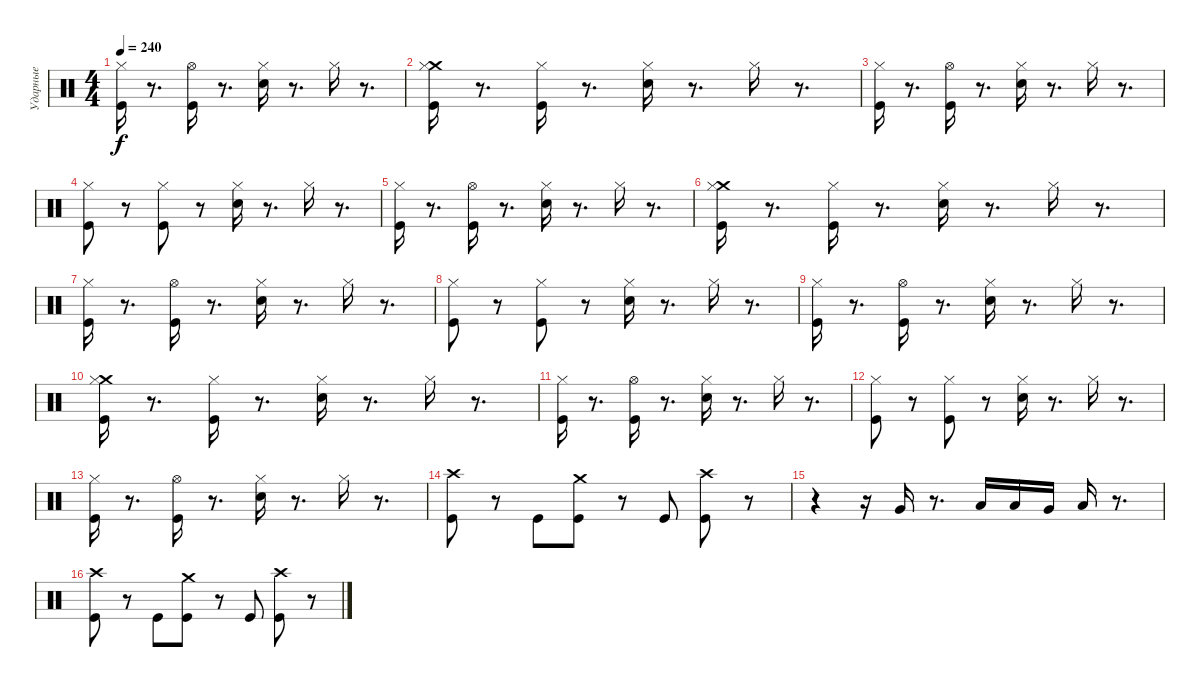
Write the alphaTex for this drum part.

\track ("Ударные" "Ударные") {instrument percussion}
\staff {score}
\articulation defaults
\ts (4 4)
\tempo 240
\clef neutral
\ks c
("Kick (hit)" "Hi-Hat (closed)").16{dy f} r.8{d} ("Kick (hit)" "Hi-Hat (open)").16 r.8{d} ("Snare (hit) 2" "Hi-Hat (closed)").16 r.8{d} "Hi-Hat (closed)".16 r.8{d} |
("Kick (hit)" "Crash medium (hit)" "Hi-Hat (closed)").16 r.8{d} ("Kick (hit)" "Hi-Hat (closed)").16 r.8{d} ("Snare (hit) 2" "Hi-Hat (closed)").16 r.8{d} "Hi-Hat (closed)".16 r.8{d} |
("Kick (hit)" "Hi-Hat (closed)").16 r.8{d} ("Kick (hit)" "Hi-Hat (open)").16 r.8{d} ("Snare (hit) 2" "Hi-Hat (closed)").16 r.8{d} "Hi-Hat (closed)".16 r.8{d} |
("Hi-Hat (closed)" "Kick (hit)").8 r.8 ("Kick (hit)" "Hi-Hat (closed)").8 r.8 ("Snare (hit) 2" "Hi-Hat (closed)").16 r.8{d} "Hi-Hat (closed)".16 r.8{d} |
("Kick (hit)" "Hi-Hat (closed)").16 r.8{d} ("Kick (hit)" "Hi-Hat (open)").16 r.8{d} ("Snare (hit) 2" "Hi-Hat (closed)").16 r.8{d} "Hi-Hat (closed)".16 r.8{d} |
("Kick (hit)" "Crash medium (hit)" "Hi-Hat (closed)").16 r.8{d} ("Kick (hit)" "Hi-Hat (closed)").16 r.8{d} ("Snare (hit) 2" "Hi-Hat (closed)").16 r.8{d} "Hi-Hat (closed)".16 r.8{d} |
("Kick (hit)" "Hi-Hat (closed)").16 r.8{d} ("Kick (hit)" "Hi-Hat (open)").16 r.8{d} ("Snare (hit) 2" "Hi-Hat (closed)").16 r.8{d} "Hi-Hat (closed)".16 r.8{d} |
("Hi-Hat (closed)" "Kick (hit)").8 r.8 ("Kick (hit)" "Hi-Hat (closed)").8 r.8 ("Snare (hit) 2" "Hi-Hat (closed)").16 r.8{d} "Hi-Hat (closed)".16 r.8{d} |
("Kick (hit)" "Hi-Hat (closed)").16 r.8{d} ("Kick (hit)" "Hi-Hat (open)").16 r.8{d} ("Snare (hit) 2" "Hi-Hat (closed)").16 r.8{d} "Hi-Hat (closed)".16 r.8{d} |
("Kick (hit)" "Crash medium (hit)" "Hi-Hat (closed)").16 r.8{d} ("Kick (hit)" "Hi-Hat (closed)").16 r.8{d} ("Snare (hit) 2" "Hi-Hat (closed)").16 r.8{d} "Hi-Hat (closed)".16 r.8{d} |
("Kick (hit)" "Hi-Hat (closed)").16 r.8{d} ("Kick (hit)" "Hi-Hat (open)").16 r.8{d} ("Snare (hit) 2" "Hi-Hat (closed)").16 r.8{d} "Hi-Hat (closed)".16 r.8{d} |
("Hi-Hat (closed)" "Kick (hit)").8 r.8 ("Kick (hit)" "Hi-Hat (closed)").8 r.8 ("Snare (hit) 2" "Hi-Hat (closed)").16 r.8{d} "Hi-Hat (closed)".16 r.8{d} |
("Kick (hit)" "Hi-Hat (closed)").16 r.8{d} ("Kick (hit)" "Hi-Hat (open)").16 r.8{d} ("Snare (hit) 2" "Hi-Hat (closed)").16 r.8{d} "Hi-Hat (closed)".16 r.8{d} |
("Kick (hit)" "Crash high (hit)").8 r.8 "Kick (hit)".8 ("Kick (hit)" "Crash medium (hit)").8 r.8 "Kick (hit)".8 ("Kick (hit)" "Crash high (hit)").8 r.8 |
r.4 r.16 "Very Low Tom (hit)".16 r.8{d} "Low Tom (hit)".16 "Low Tom (hit)".16 "Very Low Tom (hit)".16 "Low Floor Tom (hit)".16 r.8{d} |
("Kick (hit)" "Crash high (hit)").8 r.8 "Kick (hit)".8 ("Kick (hit)" "Crash medium (hit)").8 r.8 "Kick (hit)".8 ("Kick (hit)" "Crash high (hit)").8 r.8
